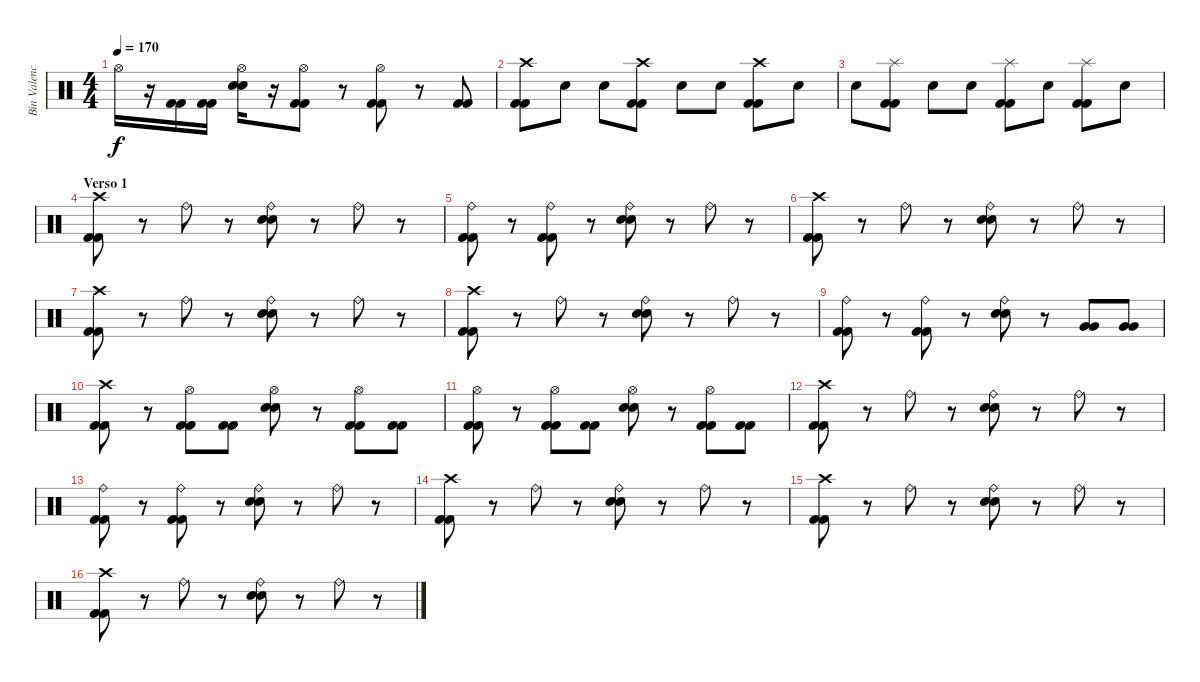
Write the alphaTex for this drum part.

\track ("Bin Valencia (Bateria)" "Bin Valenc") {instrument percussion}
\staff {score}
\articulation defaults
\ts (4 4)
\tempo 170
\clef neutral
\ks c "Hi-Hat (open)".16{dy f}
r.16 ("Kick (hit) 2" "Kick (hit) 2").16 ("Kick (hit) 2" "Kick (hit) 2").16 ("Hi-Hat (open)" "Snare (hit) 2" "Snare (hit) 2").16 r.16 ("Hi-Hat (open)" "Kick (hit) 2" "Kick (hit) 2").8 r.8 ("Hi-Hat (open)" "Kick (hit) 2" "Kick (hit) 2").8 r.8 ("Kick (hit) 2" "Kick (hit) 2").8 |
("Crash high (hit)" "Kick (hit) 2" "Kick (hit) 2").8 "Snare (hit) 2".8 "Snare (hit) 2".8 ("Crash high (hit)" "Kick (hit) 2" "Kick (hit) 2").8 "Snare (hit) 2".8 "Snare (hit) 2".8 ("Crash high (hit)" "Kick (hit) 2" "Kick (hit) 2").8 "Snare (hit) 2".8 |
"Snare (hit) 2".8 ("Splash (hit)" "Kick (hit) 2" "Kick (hit) 2").8 "Snare (hit) 2".8 "Snare (hit) 2".8 ("Splash (hit)" "Kick (hit) 2" "Kick (hit) 2").8 "Snare (hit) 2".8 ("Splash (hit)" "Kick (hit) 2" "Kick (hit) 2").8 "Snare (hit) 2".8 |
\section ("" "Verso 1")
("Crash high (hit)" "Kick (hit) 2" "Kick (hit) 2").8 r.8 "Ride (bell)".8 r.8 ("Ride (bell)" "Snare (hit) 2" "Snare (hit) 2").8 r.8 "Ride (bell)".8 r.8 |
("Ride (bell)" "Kick (hit) 2" "Kick (hit) 2").8 r.8 ("Ride (bell)" "Kick (hit) 2" "Kick (hit) 2").8 r.8 ("Ride (bell)" "Snare (hit) 2" "Snare (hit) 2").8 r.8 "Ride (bell)".8 r.8 |
("Crash high (hit)" "Kick (hit) 2" "Kick (hit) 2").8 r.8 "Ride (bell)".8 r.8 ("Ride (bell)" "Snare (hit) 2" "Snare (hit) 2").8 r.8 "Ride (bell)".8 r.8 |
("Crash high (hit)" "Kick (hit) 2" "Kick (hit) 2").8 r.8 "Ride (bell)".8 r.8 ("Ride (bell)" "Snare (hit) 2" "Snare (hit) 2").8 r.8 "Ride (bell)".8 r.8 |
("Crash high (hit)" "Kick (hit) 2" "Kick (hit) 2").8 r.8 "Ride (bell)".8 r.8 ("Ride (bell)" "Snare (hit) 2" "Snare (hit) 2").8 r.8 "Ride (bell)".8 r.8 |
("Ride (bell)" "Kick (hit) 2" "Kick (hit) 2").8 r.8 ("Ride (bell)" "Kick (hit) 2" "Kick (hit) 2").8 r.8 ("Ride (bell)" "Snare (hit) 2" "Snare (hit) 2").8 r.8 ("Very Low Tom (hit)" "Very Low Tom (hit)").8 ("Very Low Tom (hit)" "Very Low Tom (hit)").8 |
("Crash high (hit)" "Kick (hit) 2" "Kick (hit) 2").8 r.8 ("Hi-Hat (open)" "Kick (hit) 2" "Kick (hit) 2").8 ("Kick (hit) 2" "Kick (hit) 2").8 ("Hi-Hat (open)" "Snare (hit) 2" "Snare (hit) 2").8 r.8 ("Hi-Hat (open)" "Kick (hit) 2" "Kick (hit) 2").8 ("Kick (hit) 2" "Kick (hit) 2").8 |
("Hi-Hat (open)" "Kick (hit) 2" "Kick (hit) 2").8 r.8 ("Hi-Hat (open)" "Kick (hit) 2" "Kick (hit) 2").8 ("Kick (hit) 2" "Kick (hit) 2").8 ("Hi-Hat (open)" "Snare (hit) 2" "Snare (hit) 2").8 r.8 ("Hi-Hat (open)" "Kick (hit) 2" "Kick (hit) 2").8 ("Kick (hit) 2" "Kick (hit) 2").8 |
("Crash high (hit)" "Kick (hit) 2" "Kick (hit) 2").8 r.8 "Ride (bell)".8 r.8 ("Ride (bell)" "Snare (hit) 2" "Snare (hit) 2").8 r.8 "Ride (bell)".8 r.8 |
("Ride (bell)" "Kick (hit) 2" "Kick (hit) 2").8 r.8 ("Ride (bell)" "Kick (hit) 2" "Kick (hit) 2").8 r.8 ("Ride (bell)" "Snare (hit) 2" "Snare (hit) 2").8 r.8 "Ride (bell)".8 r.8 |
("Crash high (hit)" "Kick (hit) 2" "Kick (hit) 2").8 r.8 "Ride (bell)".8 r.8 ("Ride (bell)" "Snare (hit) 2" "Snare (hit) 2").8 r.8 "Ride (bell)".8 r.8 |
("Crash high (hit)" "Kick (hit) 2" "Kick (hit) 2").8 r.8 "Ride (bell)".8 r.8 ("Ride (bell)" "Snare (hit) 2" "Snare (hit) 2").8 r.8 "Ride (bell)".8 r.8 |
("Crash high (hit)" "Kick (hit) 2" "Kick (hit) 2").8 r.8 "Ride (bell)".8 r.8 ("Ride (bell)" "Snare (hit) 2" "Snare (hit) 2").8 r.8 "Ride (bell)".8 r.8
